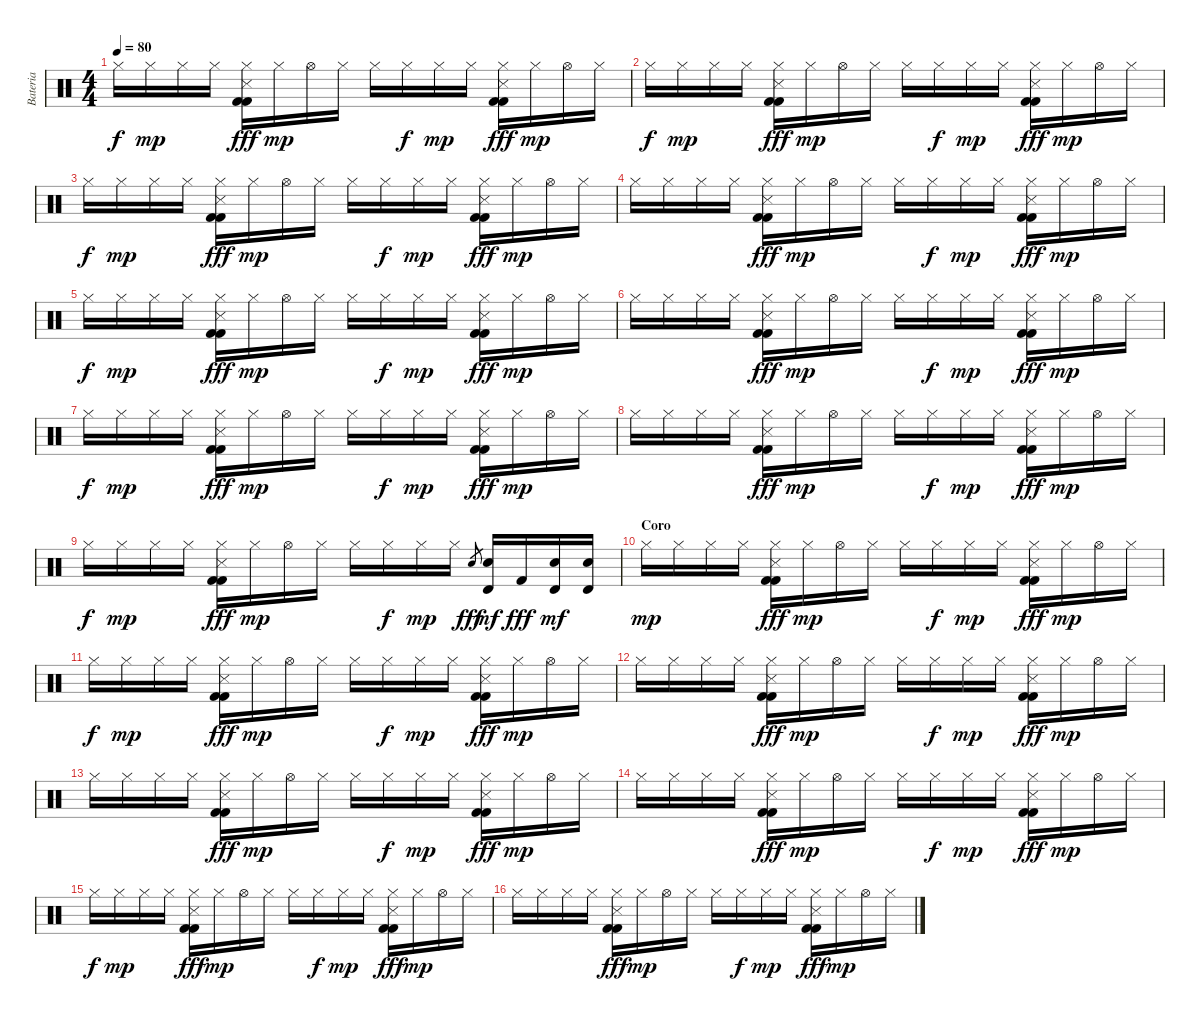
\track ("Bateria" "Bateria") {instrument percussion}
\staff {score}
\articulation defaults
\ts (4 4)
\tempo 80
\clef neutral
\ks c "Hi-Hat (closed)".16{dy f} "Hi-Hat (closed)".16{dy mp} "Hi-Hat (closed)".16 "Hi-Hat (closed)".16
("Hi-Hat (closed)" "Kick (hit) 2" "Snare (side stick) 3" "Kick (hit) 2").16{dy fff} "Hi-Hat (closed)".16{dy mp} "Hi-Hat (open)".16 "Hi-Hat (closed)".16 "Hi-Hat (closed)".16 "Hi-Hat (closed)".16{dy f} "Hi-Hat (closed)".16{dy mp} "Hi-Hat (closed)".16 ("Hi-Hat (closed)" "Snare (side stick) 3" "Kick (hit) 2" "Kick (hit) 2").16{dy fff} "Hi-Hat (closed)".16{dy mp} "Hi-Hat (open)".16 "Hi-Hat (closed)".16 |
"Hi-Hat (closed)".16{dy f} "Hi-Hat (closed)".16{dy mp} "Hi-Hat (closed)".16 "Hi-Hat (closed)".16 ("Hi-Hat (closed)" "Kick (hit) 2" "Snare (side stick) 3" "Kick (hit) 2").16{dy fff} "Hi-Hat (closed)".16{dy mp} "Hi-Hat (open)".16 "Hi-Hat (closed)".16 "Hi-Hat (closed)".16 "Hi-Hat (closed)".16{dy f} "Hi-Hat (closed)".16{dy mp} "Hi-Hat (closed)".16 ("Hi-Hat (closed)" "Snare (side stick) 3" "Kick (hit) 2" "Kick (hit) 2").16{dy fff} "Hi-Hat (closed)".16{dy mp} "Hi-Hat (open)".16 "Hi-Hat (closed)".16 |
"Hi-Hat (closed)".16{dy f} "Hi-Hat (closed)".16{dy mp} "Hi-Hat (closed)".16 "Hi-Hat (closed)".16 ("Hi-Hat (closed)" "Kick (hit) 2" "Snare (side stick) 3" "Kick (hit) 2").16{dy fff} "Hi-Hat (closed)".16{dy mp} "Hi-Hat (open)".16 "Hi-Hat (closed)".16 "Hi-Hat (closed)".16 "Hi-Hat (closed)".16{dy f} "Hi-Hat (closed)".16{dy mp} "Hi-Hat (closed)".16 ("Hi-Hat (closed)" "Snare (side stick) 3" "Kick (hit) 2" "Kick (hit) 2").16{dy fff} "Hi-Hat (closed)".16{dy mp} "Hi-Hat (open)".16 "Hi-Hat (closed)".16 |
"Hi-Hat (closed)".16 "Hi-Hat (closed)".16 "Hi-Hat (closed)".16 "Hi-Hat (closed)".16 ("Hi-Hat (closed)" "Kick (hit) 2" "Snare (side stick) 3" "Kick (hit) 2").16{dy fff} "Hi-Hat (closed)".16{dy mp} "Hi-Hat (open)".16 "Hi-Hat (closed)".16 "Hi-Hat (closed)".16 "Hi-Hat (closed)".16{dy f} "Hi-Hat (closed)".16{dy mp} "Hi-Hat (closed)".16 ("Hi-Hat (closed)" "Snare (side stick) 3" "Kick (hit) 2" "Kick (hit) 2").16{dy fff} "Hi-Hat (closed)".16{dy mp} "Hi-Hat (open)".16 "Hi-Hat (closed)".16 |
"Hi-Hat (closed)".16{dy f} "Hi-Hat (closed)".16{dy mp} "Hi-Hat (closed)".16 "Hi-Hat (closed)".16 ("Hi-Hat (closed)" "Kick (hit) 2" "Snare (side stick) 3" "Kick (hit) 2").16{dy fff} "Hi-Hat (closed)".16{dy mp} "Hi-Hat (open)".16 "Hi-Hat (closed)".16 "Hi-Hat (closed)".16 "Hi-Hat (closed)".16{dy f} "Hi-Hat (closed)".16{dy mp} "Hi-Hat (closed)".16 ("Hi-Hat (closed)" "Snare (side stick) 3" "Kick (hit) 2" "Kick (hit) 2").16{dy fff} "Hi-Hat (closed)".16{dy mp} "Hi-Hat (open)".16 "Hi-Hat (closed)".16 |
"Hi-Hat (closed)".16 "Hi-Hat (closed)".16 "Hi-Hat (closed)".16 "Hi-Hat (closed)".16 ("Hi-Hat (closed)" "Kick (hit) 2" "Snare (side stick) 3" "Kick (hit) 2").16{dy fff} "Hi-Hat (closed)".16{dy mp} "Hi-Hat (open)".16 "Hi-Hat (closed)".16 "Hi-Hat (closed)".16 "Hi-Hat (closed)".16{dy f} "Hi-Hat (closed)".16{dy mp} "Hi-Hat (closed)".16 ("Hi-Hat (closed)" "Snare (side stick) 3" "Kick (hit) 2" "Kick (hit) 2").16{dy fff} "Hi-Hat (closed)".16{dy mp} "Hi-Hat (open)".16 "Hi-Hat (closed)".16 |
"Hi-Hat (closed)".16{dy f} "Hi-Hat (closed)".16{dy mp} "Hi-Hat (closed)".16 "Hi-Hat (closed)".16 ("Hi-Hat (closed)" "Kick (hit) 2" "Snare (side stick) 3" "Kick (hit) 2").16{dy fff} "Hi-Hat (closed)".16{dy mp} "Hi-Hat (open)".16 "Hi-Hat (closed)".16 "Hi-Hat (closed)".16 "Hi-Hat (closed)".16{dy f} "Hi-Hat (closed)".16{dy mp} "Hi-Hat (closed)".16 ("Hi-Hat (closed)" "Snare (side stick) 3" "Kick (hit) 2" "Kick (hit) 2").16{dy fff} "Hi-Hat (closed)".16{dy mp} "Hi-Hat (open)".16 "Hi-Hat (closed)".16 |
"Hi-Hat (closed)".16 "Hi-Hat (closed)".16 "Hi-Hat (closed)".16 "Hi-Hat (closed)".16 ("Hi-Hat (closed)" "Kick (hit) 2" "Snare (side stick) 3" "Kick (hit) 2").16{dy fff} "Hi-Hat (closed)".16{dy mp} "Hi-Hat (open)".16 "Hi-Hat (closed)".16 "Hi-Hat (closed)".16 "Hi-Hat (closed)".16{dy f} "Hi-Hat (closed)".16{dy mp} "Hi-Hat (closed)".16 ("Hi-Hat (closed)" "Snare (side stick) 3" "Kick (hit) 2" "Kick (hit) 2").16{dy fff} "Hi-Hat (closed)".16{dy mp} "Hi-Hat (open)".16 "Hi-Hat (closed)".16 |
"Hi-Hat (closed)".16{dy f} "Hi-Hat (closed)".16{dy mp} "Hi-Hat (closed)".16 "Hi-Hat (closed)".16 ("Hi-Hat (closed)" "Kick (hit) 2" "Snare (side stick) 3" "Kick (hit) 2").16{dy fff} "Hi-Hat (closed)".16{dy mp} "Hi-Hat (open)".16 "Hi-Hat (closed)".16 "Hi-Hat (closed)".16 "Hi-Hat (closed)".16{dy f} "Hi-Hat (closed)".16{dy mp} "Hi-Hat (closed)".16 "Electric Snare (hit)".8{gr dy fff} ("Electric Snare (hit)" "Timbale high (hit)").16{dy mf} "Kick (hit) 2".16{dy fff} ("Electric Snare (hit)" "Timbale high (hit)").16{dy mf} ("Electric Snare (hit)" "Timbale high (hit)").16 |
\section ("" "Coro")
"Hi-Hat (closed)".16{dy mp} "Hi-Hat (closed)".16 "Hi-Hat (closed)".16 "Hi-Hat (closed)".16 ("Hi-Hat (closed)" "Kick (hit) 2" "Snare (side stick) 3" "Kick (hit) 2").16{dy fff} "Hi-Hat (closed)".16{dy mp} "Hi-Hat (open)".16 "Hi-Hat (closed)".16 "Hi-Hat (closed)".16 "Hi-Hat (closed)".16{dy f} "Hi-Hat (closed)".16{dy mp} "Hi-Hat (closed)".16 ("Hi-Hat (closed)" "Snare (side stick) 3" "Kick (hit) 2" "Kick (hit) 2").16{dy fff} "Hi-Hat (closed)".16{dy mp} "Hi-Hat (open)".16 "Hi-Hat (closed)".16 |
"Hi-Hat (closed)".16{dy f} "Hi-Hat (closed)".16{dy mp} "Hi-Hat (closed)".16 "Hi-Hat (closed)".16 ("Hi-Hat (closed)" "Kick (hit) 2" "Snare (side stick) 3" "Kick (hit) 2").16{dy fff} "Hi-Hat (closed)".16{dy mp} "Hi-Hat (open)".16 "Hi-Hat (closed)".16 "Hi-Hat (closed)".16 "Hi-Hat (closed)".16{dy f} "Hi-Hat (closed)".16{dy mp} "Hi-Hat (closed)".16 ("Hi-Hat (closed)" "Snare (side stick) 3" "Kick (hit) 2" "Kick (hit) 2").16{dy fff} "Hi-Hat (closed)".16{dy mp} "Hi-Hat (open)".16 "Hi-Hat (closed)".16 |
"Hi-Hat (closed)".16 "Hi-Hat (closed)".16 "Hi-Hat (closed)".16 "Hi-Hat (closed)".16 ("Hi-Hat (closed)" "Kick (hit) 2" "Snare (side stick) 3" "Kick (hit) 2").16{dy fff} "Hi-Hat (closed)".16{dy mp} "Hi-Hat (open)".16 "Hi-Hat (closed)".16 "Hi-Hat (closed)".16 "Hi-Hat (closed)".16{dy f} "Hi-Hat (closed)".16{dy mp} "Hi-Hat (closed)".16 ("Hi-Hat (closed)" "Snare (side stick) 3" "Kick (hit) 2" "Kick (hit) 2").16{dy fff} "Hi-Hat (closed)".16{dy mp} "Hi-Hat (open)".16 "Hi-Hat (closed)".16 |
"Hi-Hat (closed)".16 "Hi-Hat (closed)".16 "Hi-Hat (closed)".16 "Hi-Hat (closed)".16 ("Hi-Hat (closed)" "Kick (hit) 2" "Snare (side stick) 3" "Kick (hit) 2").16{dy fff} "Hi-Hat (closed)".16{dy mp} "Hi-Hat (open)".16 "Hi-Hat (closed)".16 "Hi-Hat (closed)".16 "Hi-Hat (closed)".16{dy f} "Hi-Hat (closed)".16{dy mp} "Hi-Hat (closed)".16 ("Hi-Hat (closed)" "Snare (side stick) 3" "Kick (hit) 2" "Kick (hit) 2").16{dy fff} "Hi-Hat (closed)".16{dy mp} "Hi-Hat (open)".16 "Hi-Hat (closed)".16 |
"Hi-Hat (closed)".16 "Hi-Hat (closed)".16 "Hi-Hat (closed)".16 "Hi-Hat (closed)".16 ("Hi-Hat (closed)" "Kick (hit) 2" "Snare (side stick) 3" "Kick (hit) 2").16{dy fff} "Hi-Hat (closed)".16{dy mp} "Hi-Hat (open)".16 "Hi-Hat (closed)".16 "Hi-Hat (closed)".16 "Hi-Hat (closed)".16{dy f} "Hi-Hat (closed)".16{dy mp} "Hi-Hat (closed)".16 ("Hi-Hat (closed)" "Snare (side stick) 3" "Kick (hit) 2" "Kick (hit) 2").16{dy fff} "Hi-Hat (closed)".16{dy mp} "Hi-Hat (open)".16 "Hi-Hat (closed)".16 |
"Hi-Hat (closed)".16{dy f} "Hi-Hat (closed)".16{dy mp} "Hi-Hat (closed)".16 "Hi-Hat (closed)".16 ("Hi-Hat (closed)" "Kick (hit) 2" "Snare (side stick) 3" "Kick (hit) 2").16{dy fff} "Hi-Hat (closed)".16{dy mp} "Hi-Hat (open)".16 "Hi-Hat (closed)".16 "Hi-Hat (closed)".16 "Hi-Hat (closed)".16{dy f} "Hi-Hat (closed)".16{dy mp} "Hi-Hat (closed)".16 ("Hi-Hat (closed)" "Snare (side stick) 3" "Kick (hit) 2" "Kick (hit) 2").16{dy fff} "Hi-Hat (closed)".16{dy mp} "Hi-Hat (open)".16 "Hi-Hat (closed)".16 |
"Hi-Hat (closed)".16 "Hi-Hat (closed)".16 "Hi-Hat (closed)".16 "Hi-Hat (closed)".16 ("Hi-Hat (closed)" "Kick (hit) 2" "Snare (side stick) 3" "Kick (hit) 2").16{dy fff} "Hi-Hat (closed)".16{dy mp} "Hi-Hat (open)".16 "Hi-Hat (closed)".16 "Hi-Hat (closed)".16 "Hi-Hat (closed)".16{dy f} "Hi-Hat (closed)".16{dy mp} "Hi-Hat (closed)".16 ("Hi-Hat (closed)" "Snare (side stick) 3" "Kick (hit) 2" "Kick (hit) 2").16{dy fff} "Hi-Hat (closed)".16{dy mp} "Hi-Hat (open)".16 "Hi-Hat (closed)".16
